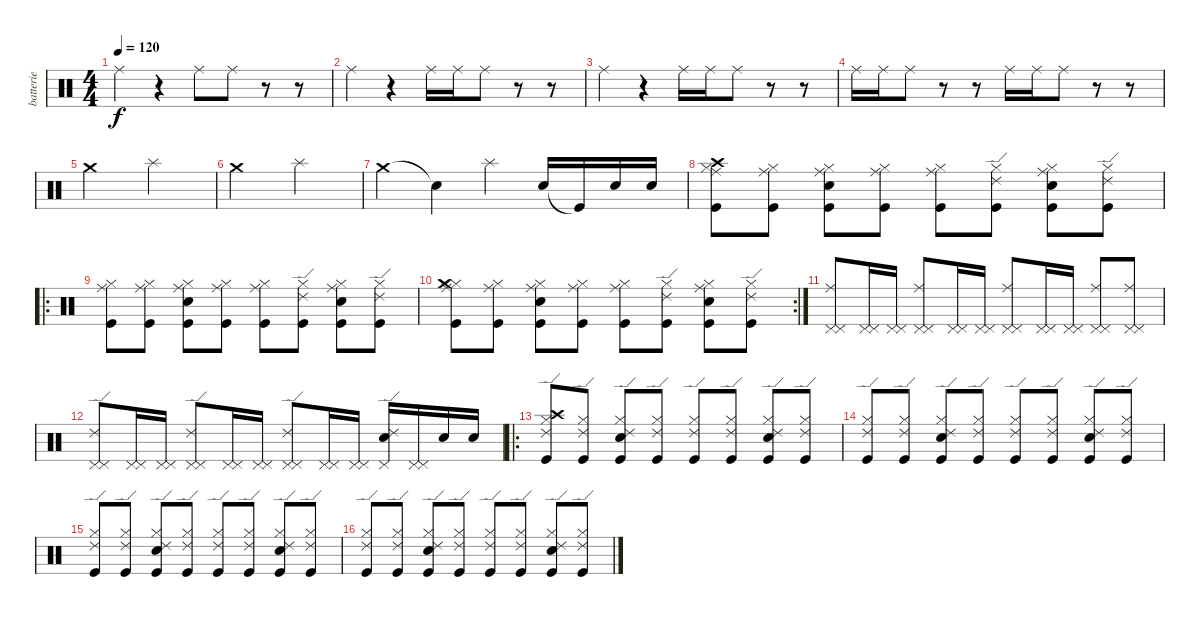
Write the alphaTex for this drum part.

\track ("batterie" "batterie") {instrument percussion}
\staff {score}
\articulation defaults
\ts (4 4)
\tempo 120
\clef neutral
\ks c "Ride (middle)".4{dy f}
r.4 "Ride (middle)".8 "Ride (middle)".8 r.8 r.8 |
"Ride (middle)".4 r.4 "Ride (middle)".16 "Ride (middle)".16 "Ride (middle)".8 r.8 r.8 |
"Ride (middle)".4 r.4 "Ride (middle)".16 "Ride (middle)".16 "Ride (middle)".8 r.8 r.8 |
"Ride (middle)".16 "Ride (middle)".16 "Ride (middle)".8 r.8 r.8 "Ride (middle)".16 "Ride (middle)".16 "Ride (middle)".8 r.8 r.8 |
"Crash medium (hit)".2 "Splash (hit)".2 |
"Crash medium (hit)".2 "Splash (hit)".2 |
"Crash medium (hit)".4 "Snare (hit)"{t}.4 "Splash (hit)".4 "Electric Snare (hit)".16 "Kick (hit)"{t}.16 "Electric Snare (hit)".16 "Electric Snare (hit)".16 |
("Kick (hit)" "Crash high (hit)" "Hi-Hat (closed)" "Ride (middle)").8 ("Kick (hit)" "Hi-Hat (closed)" "Ride (middle)").8 ("Electric Snare (hit)" "Kick (hit)" "Hi-Hat (closed)" "Ride (middle)").8 ("Kick (hit)" "Hi-Hat (closed)" "Ride (middle)").8 ("Kick (hit)" "Hi-Hat (closed)" "Ride (middle)").8 ("Kick (hit)" "Hi-Hat (closed)" "Ride (edge) 2").8 ("Electric Snare (hit)" "Kick (hit)" "Hi-Hat (closed)" "Ride (middle)").8 ("Kick (hit)" "Hi-Hat (closed)" "Ride (edge) 2").8 |
\ro
("Kick (hit)" "Hi-Hat (closed)" "Ride (middle)").8 ("Kick (hit)" "Hi-Hat (closed)" "Ride (middle)").8 ("Electric Snare (hit)" "Kick (hit)" "Hi-Hat (closed)" "Ride (middle)").8 ("Kick (hit)" "Hi-Hat (closed)" "Ride (middle)").8 ("Kick (hit)" "Hi-Hat (closed)" "Ride (middle)").8 ("Kick (hit)" "Hi-Hat (closed)" "Ride (edge) 2").8 ("Electric Snare (hit)" "Kick (hit)" "Hi-Hat (closed)" "Ride (middle)").8 ("Kick (hit)" "Hi-Hat (closed)" "Ride (edge) 2").8 |
\rc 2
("Kick (hit)" "Hi-Hat (closed)" "Ride (middle)" "Crash medium (hit)").8 ("Kick (hit)" "Hi-Hat (closed)" "Ride (middle)").8 ("Electric Snare (hit)" "Kick (hit)" "Hi-Hat (closed)" "Ride (middle)").8 ("Kick (hit)" "Hi-Hat (closed)" "Ride (middle)").8 ("Kick (hit)" "Hi-Hat (closed)" "Ride (middle)").8 ("Kick (hit)" "Hi-Hat (closed)" "Ride (edge) 2").8 ("Electric Snare (hit)" "Kick (hit)" "Hi-Hat (closed)" "Ride (middle)").8 ("Kick (hit)" "Hi-Hat (closed)" "Ride (edge) 2").8 |
("Pedal Hi-Hat (hit)" "Pedal Hi-Hat (hit)" "Ride (middle)").8 ("Pedal Hi-Hat (hit)" "Pedal Hi-Hat (hit)").16 ("Pedal Hi-Hat (hit)" "Pedal Hi-Hat (hit)").16 ("Pedal Hi-Hat (hit)" "Pedal Hi-Hat (hit)" "Ride (middle)").8 ("Pedal Hi-Hat (hit)" "Pedal Hi-Hat (hit)").16 ("Pedal Hi-Hat (hit)" "Pedal Hi-Hat (hit)").16 ("Pedal Hi-Hat (hit)" "Pedal Hi-Hat (hit)" "Ride (middle)").8 ("Pedal Hi-Hat (hit)" "Pedal Hi-Hat (hit)").16 ("Pedal Hi-Hat (hit)" "Pedal Hi-Hat (hit)").16 ("Pedal Hi-Hat (hit)" "Pedal Hi-Hat (hit)" "Ride (middle)").8 ("Pedal Hi-Hat (hit)" "Pedal Hi-Hat (hit)" "Ride (middle)").8 |
("Pedal Hi-Hat (hit)" "Pedal Hi-Hat (hit)" "Ride (edge) 2").8 ("Pedal Hi-Hat (hit)" "Pedal Hi-Hat (hit)").16 ("Pedal Hi-Hat (hit)" "Pedal Hi-Hat (hit)").16 ("Pedal Hi-Hat (hit)" "Pedal Hi-Hat (hit)" "Ride (edge) 2").8 ("Pedal Hi-Hat (hit)" "Pedal Hi-Hat (hit)").16 ("Pedal Hi-Hat (hit)" "Pedal Hi-Hat (hit)").16 ("Pedal Hi-Hat (hit)" "Pedal Hi-Hat (hit)" "Ride (edge) 2").8 ("Pedal Hi-Hat (hit)" "Pedal Hi-Hat (hit)").16 ("Pedal Hi-Hat (hit)" "Pedal Hi-Hat (hit)").16 ("Pedal Hi-Hat (hit)" "Electric Snare (hit)" "Ride (edge) 2").16 ("Pedal Hi-Hat (hit)" "Pedal Hi-Hat (hit)").16 "Electric Snare (hit)".16 "Electric Snare (hit)".16 |
\ro
("Kick (hit)" "Crash high (hit)" "Hi-Hat (closed)" "Ride (edge) 2").8 ("Kick (hit)" "Hi-Hat (closed)" "Ride (edge) 2").8 ("Electric Snare (hit)" "Kick (hit)" "Hi-Hat (closed)" "Ride (edge) 2").8 ("Kick (hit)" "Hi-Hat (closed)" "Ride (edge) 2").8 ("Kick (hit)" "Hi-Hat (closed)" "Ride (edge) 2").8 ("Kick (hit)" "Hi-Hat (closed)" "Ride (edge) 2").8 ("Electric Snare (hit)" "Kick (hit)" "Hi-Hat (closed)" "Ride (edge) 2").8 ("Kick (hit)" "Hi-Hat (closed)" "Ride (edge) 2").8 |
("Kick (hit)" "Hi-Hat (closed)" "Ride (edge) 2").8 ("Kick (hit)" "Hi-Hat (closed)" "Ride (edge) 2").8 ("Electric Snare (hit)" "Kick (hit)" "Hi-Hat (closed)" "Ride (edge) 2").8 ("Kick (hit)" "Hi-Hat (closed)" "Ride (edge) 2").8 ("Kick (hit)" "Hi-Hat (closed)" "Ride (edge) 2").8 ("Kick (hit)" "Hi-Hat (closed)" "Ride (edge) 2").8 ("Electric Snare (hit)" "Kick (hit)" "Hi-Hat (closed)" "Ride (edge) 2").8 ("Kick (hit)" "Hi-Hat (closed)" "Ride (edge) 2").8 |
("Kick (hit)" "Hi-Hat (closed)" "Ride (edge) 2").8 ("Kick (hit)" "Hi-Hat (closed)" "Ride (edge) 2").8 ("Electric Snare (hit)" "Kick (hit)" "Hi-Hat (closed)" "Ride (edge) 2").8 ("Kick (hit)" "Hi-Hat (closed)" "Ride (edge) 2").8 ("Kick (hit)" "Hi-Hat (closed)" "Ride (edge) 2").8 ("Kick (hit)" "Hi-Hat (closed)" "Ride (edge) 2").8 ("Electric Snare (hit)" "Kick (hit)" "Hi-Hat (closed)" "Ride (edge) 2").8 ("Kick (hit)" "Hi-Hat (closed)" "Ride (edge) 2").8 |
("Kick (hit)" "Hi-Hat (closed)" "Ride (edge) 2").8 ("Kick (hit)" "Hi-Hat (closed)" "Ride (edge) 2").8 ("Electric Snare (hit)" "Kick (hit)" "Hi-Hat (closed)" "Ride (edge) 2").8 ("Kick (hit)" "Hi-Hat (closed)" "Ride (edge) 2").8 ("Kick (hit)" "Hi-Hat (closed)" "Ride (edge) 2").8 ("Kick (hit)" "Hi-Hat (closed)" "Ride (edge) 2").8 ("Electric Snare (hit)" "Kick (hit)" "Hi-Hat (closed)" "Ride (edge) 2").8 ("Kick (hit)" "Hi-Hat (closed)" "Ride (edge) 2").8
